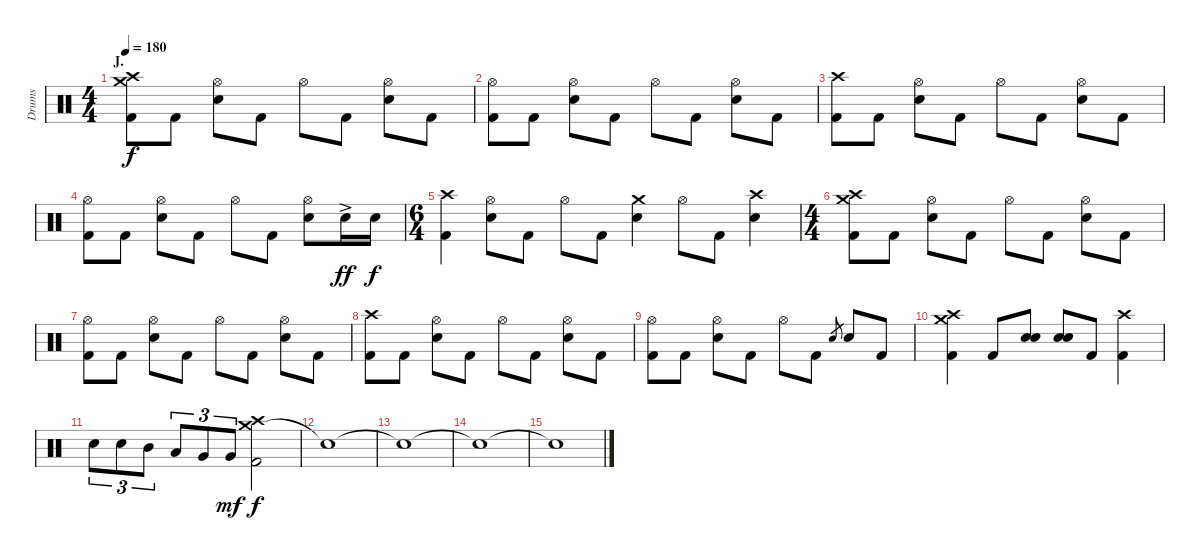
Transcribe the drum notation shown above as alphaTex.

\track ("Drums" "Drums") {instrument percussion}
\staff {score}
\articulation defaults
\ts (4 4)
\section ("" "J.")
\tempo 180
\clef neutral
\ks c
("Crash medium (hit)" "Crash high (hit)" "Kick (hit) 2").8{dy f} "Kick (hit) 2".8 ("Hi-Hat (open)" "Electric Snare (hit)").8 "Kick (hit) 2".8 "Hi-Hat (open)".8 "Kick (hit) 2".8 ("Hi-Hat (open)" "Electric Snare (hit)").8 "Kick (hit) 2".8 |
("Hi-Hat (open)" "Kick (hit) 2").8 "Kick (hit) 2".8 ("Hi-Hat (open)" "Electric Snare (hit)").8 "Kick (hit) 2".8 "Hi-Hat (open)".8 "Kick (hit) 2".8 ("Hi-Hat (open)" "Electric Snare (hit)").8 "Kick (hit) 2".8 |
("Crash high (hit)" "Kick (hit) 2").8 "Kick (hit) 2".8 ("Hi-Hat (open)" "Electric Snare (hit)").8 "Kick (hit) 2".8 "Hi-Hat (open)".8 "Kick (hit) 2".8 ("Hi-Hat (open)" "Electric Snare (hit)").8 "Kick (hit) 2".8 |
("Hi-Hat (open)" "Kick (hit) 2").8 "Kick (hit) 2".8 ("Hi-Hat (open)" "Electric Snare (hit)").8 "Kick (hit) 2".8 "Hi-Hat (open)".8 "Kick (hit) 2".8 ("Hi-Hat (open)" "Electric Snare (hit)").8 "Electric Snare (hit)"{ac}.16{dy ff} "Electric Snare (hit)".16{dy f} |
\ts (6 4)
("Crash high (hit)" "Kick (hit) 2").4 ("Hi-Hat (open)" "Electric Snare (hit)").8 "Kick (hit) 2".8 "Hi-Hat (open)".8 "Kick (hit) 2".8 ("Crash medium (hit)" "Electric Snare (hit)").4 "Hi-Hat (open)".8 "Kick (hit) 2".8 ("Crash high (hit)" "Electric Snare (hit)").4 |
\ts (4 4)
("Crash medium (hit)" "Crash high (hit)" "Kick (hit) 2").8 "Kick (hit) 2".8 ("Hi-Hat (open)" "Electric Snare (hit)").8 "Kick (hit) 2".8 "Hi-Hat (open)".8 "Kick (hit) 2".8 ("Hi-Hat (open)" "Electric Snare (hit)").8 "Kick (hit) 2".8 |
("Hi-Hat (open)" "Kick (hit) 2").8 "Kick (hit) 2".8 ("Hi-Hat (open)" "Electric Snare (hit)").8 "Kick (hit) 2".8 "Hi-Hat (open)".8 "Kick (hit) 2".8 ("Hi-Hat (open)" "Electric Snare (hit)").8 "Kick (hit) 2".8 |
("Crash high (hit)" "Kick (hit) 2").8 "Kick (hit) 2".8 ("Hi-Hat (open)" "Electric Snare (hit)").8 "Kick (hit) 2".8 "Hi-Hat (open)".8 "Kick (hit) 2".8 ("Hi-Hat (open)" "Electric Snare (hit)").8 "Kick (hit) 2".8 |
("Hi-Hat (open)" "Kick (hit) 2").8 "Kick (hit) 2".8 ("Hi-Hat (open)" "Electric Snare (hit)").8 "Kick (hit) 2".8 "Hi-Hat (open)".8 "Kick (hit) 2".8 "Electric Snare (hit)".8{gr} "Electric Snare (hit)".8 "Kick (hit) 2".8 |
("Crash medium (hit)" "Crash high (hit)" "Kick (hit) 2").4 "Kick (hit) 2".8 ("Electric Snare (hit)" "Electric Snare (hit)").8{bu 120} ("Electric Snare (hit)" "Electric Snare (hit)").8{bu 120} "Kick (hit) 2".8 ("Crash high (hit)" "Kick (hit) 2").4 |
"Electric Snare (hit)".8{tu (3 2)} "Electric Snare (hit)".8{tu (3 2)} "Mid Tom (hit)".8{tu (3 2)} "Low Tom (hit)".8{tu (3 2)} "Very Low Tom (hit)".8{tu (3 2)} "Very Low Tom (hit)".8{tu (3 2) dy mf} ("Crash medium (hit)" "Crash high (hit)" "Kick (hit) 2").2{dy f} |
"Snare (hit)"{t}.1 |
"Snare (hit)"{t}.1 |
"Snare (hit)"{t}.1 |
"Snare (hit)"{t}.1
